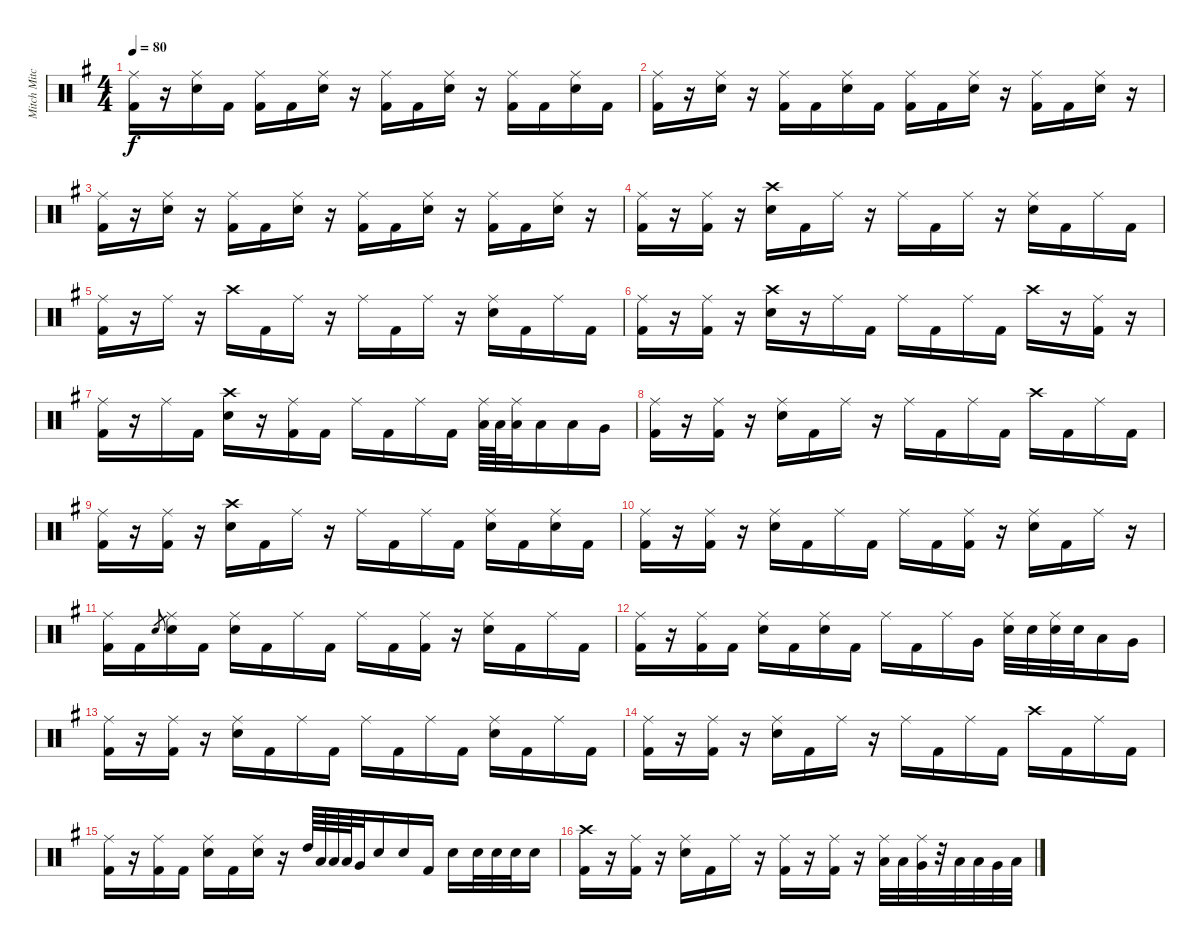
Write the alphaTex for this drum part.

\track ("Mitch Mitchell" "Mitch Mitc") {instrument percussion}
\staff {score}
\articulation defaults
\ts (4 4)
\tempo 80
\clef neutral
\ks eminor
("Ride (middle)" "Kick (hit) 2").16{dy f} r.16 ("Ride (middle)" "Electric Snare (hit)").16 "Kick (hit) 2".16 ("Ride (middle)" "Kick (hit) 2").16 "Kick (hit) 2".16 ("Ride (middle)" "Electric Snare (hit)").16 r.16 ("Ride (middle)" "Kick (hit) 2").16 "Kick (hit) 2".16 ("Ride (middle)" "Electric Snare (hit)").16 r.16 ("Ride (middle)" "Kick (hit) 2").16 "Kick (hit) 2".16 ("Ride (middle)" "Electric Snare (hit)").16 "Kick (hit) 2".16 |
("Ride (middle)" "Kick (hit) 2").16 r.16 ("Ride (middle)" "Electric Snare (hit)").16 r.16 ("Ride (middle)" "Kick (hit) 2").16 "Kick (hit) 2".16 ("Ride (middle)" "Electric Snare (hit)").16 "Kick (hit) 2".16 ("Ride (middle)" "Kick (hit) 2").16 "Kick (hit) 2".16 ("Ride (middle)" "Electric Snare (hit)").16 r.16 ("Ride (middle)" "Kick (hit) 2").16 "Kick (hit) 2".16 ("Ride (middle)" "Electric Snare (hit)").16 r.16 |
("Ride (middle)" "Kick (hit) 2").16 r.16 ("Ride (middle)" "Electric Snare (hit)").16 r.16 ("Ride (middle)" "Kick (hit) 2").16 "Kick (hit) 2".16 ("Ride (middle)" "Electric Snare (hit)").16 r.16 ("Ride (middle)" "Kick (hit) 2").16 "Kick (hit) 2".16 ("Ride (middle)" "Electric Snare (hit)").16 r.16 ("Ride (middle)" "Kick (hit) 2").16 "Kick (hit) 2".16 ("Ride (middle)" "Electric Snare (hit)").16 r.16 |
("Ride (middle)" "Kick (hit) 2").16 r.16 ("Ride (middle)" "Kick (hit) 2").16 r.16 ("Crash high (hit)" "Electric Snare (hit)").16 "Kick (hit) 2".16 "Ride (middle)".16 r.16 "Ride (middle)".16 "Kick (hit) 2".16 "Ride (middle)".16 r.16 ("Ride (middle)" "Electric Snare (hit)").16 "Kick (hit) 2".16 "Ride (middle)".16 "Kick (hit) 2".16 |
("Ride (middle)" "Kick (hit) 2").16 r.16 "Ride (middle)".16 r.16 "Crash high (hit)".16 "Kick (hit) 2".16 "Ride (middle)".16 r.16 "Ride (middle)".16 "Kick (hit) 2".16 "Ride (middle)".16 r.16 ("Ride (middle)" "Electric Snare (hit)").16 "Kick (hit) 2".16 "Ride (middle)".16 "Kick (hit) 2".16 |
("Ride (middle)" "Kick (hit) 2").16 r.16 ("Ride (middle)" "Kick (hit) 2").16 r.16 ("Crash high (hit)" "Electric Snare (hit)").16 r.16 "Ride (middle)".16 "Kick (hit) 2".16 "Ride (middle)".16 "Kick (hit) 2".16 "Ride (middle)".16 "Kick (hit) 2".16 "Crash high (hit)".16 r.16 ("Ride (middle)" "Kick (hit) 2").16 r.16 |
("Ride (middle)" "Kick (hit) 2").16 r.16 "Ride (middle)".16 "Kick (hit) 2".16 ("Crash high (hit)" "Electric Snare (hit)").16 r.16 ("Ride (middle)" "Kick (hit) 2").16 "Kick (hit) 2".16 "Ride (middle)".16 "Kick (hit) 2".16 "Ride (middle)".16 "Kick (hit) 2".16 ("Ride (middle)" "Low Tom (hit)").64 "Low Tom (hit)".64 ("Ride (middle)" "Low Tom (hit)").32 "Low Tom (hit)".16 "Low Floor Tom (hit)".16 "Very Low Tom (hit)".16 |
("Ride (middle)" "Kick (hit) 2").16 r.16 ("Ride (middle)" "Kick (hit) 2").16 r.16 ("Ride (middle)" "Electric Snare (hit)").16 "Kick (hit) 2".16 "Ride (middle)".16 r.16 "Ride (middle)".16 "Kick (hit) 2".16 "Ride (middle)".16 "Kick (hit) 2".16 "Crash high (hit)".16 "Kick (hit) 2".16 "Ride (middle)".16 "Kick (hit) 2".16 |
("Ride (middle)" "Kick (hit) 2").16 r.16 ("Ride (middle)" "Kick (hit) 2").16 r.16 ("Crash high (hit)" "Electric Snare (hit)").16 "Kick (hit) 2".16 "Ride (middle)".16 r.16 "Ride (middle)".16 "Kick (hit) 2".16 "Ride (middle)".16 "Kick (hit) 2".16 ("Ride (middle)" "Electric Snare (hit)").16 "Kick (hit) 2".16 ("Ride (middle)" "Electric Snare (hit)").16 "Kick (hit) 2".16 |
("Ride (middle)" "Kick (hit) 2").16 r.16 ("Ride (middle)" "Kick (hit) 2").16 r.16 ("Ride (middle)" "Electric Snare (hit)").16 "Kick (hit) 2".16 "Ride (middle)".16 "Kick (hit) 2".16 "Ride (middle)".16 "Kick (hit) 2".16 ("Ride (middle)" "Kick (hit) 2").16 r.16 ("Ride (middle)" "Electric Snare (hit)").16 "Kick (hit) 2".16 "Ride (middle)".16 r.16 |
("Ride (middle)" "Kick (hit) 2").16 "Kick (hit) 2".16 "Electric Snare (hit)".8{gr} ("Ride (middle)" "Electric Snare (hit)").16 "Kick (hit) 2".16 ("Ride (middle)" "Electric Snare (hit)").16 "Kick (hit) 2".16 "Ride (middle)".16 "Kick (hit) 2".16 "Ride (middle)".16 "Kick (hit) 2".16 ("Ride (middle)" "Kick (hit) 2").16 r.16 ("Ride (middle)" "Electric Snare (hit)").16 "Kick (hit) 2".16 "Ride (middle)".16 "Kick (hit) 2".16 |
("Ride (middle)" "Kick (hit) 2").16 r.16 ("Ride (middle)" "Kick (hit) 2").16 "Kick (hit) 2".16 ("Ride (middle)" "Electric Snare (hit)").16 "Kick (hit) 2".16 ("Ride (middle)" "Electric Snare (hit)").16 "Kick (hit) 2".16 "Ride (middle)".16 "Kick (hit) 2".16 "Ride (middle)".16 "Very Low Tom (hit)".16 ("Ride (middle)" "Electric Snare (hit)").32 "Electric Snare (hit)".32 ("Ride (middle)" "Electric Snare (hit)").32 "Electric Snare (hit)".32 "Low Tom (hit)".16 "Very Low Tom (hit)".16 |
("Ride (middle)" "Kick (hit) 2").16 r.16 ("Ride (middle)" "Kick (hit) 2").16 r.16 ("Ride (middle)" "Electric Snare (hit)").16 "Kick (hit) 2".16 "Ride (middle)".16 "Kick (hit) 2".16 "Ride (middle)".16 "Kick (hit) 2".16 "Ride (middle)".16 "Kick (hit) 2".16 ("Ride (middle)" "Electric Snare (hit)").16 "Kick (hit) 2".16 "Ride (middle)".16 "Kick (hit) 2".16 |
("Ride (middle)" "Kick (hit) 2").16 r.16 ("Ride (middle)" "Kick (hit) 2").16 r.16 ("Ride (middle)" "Electric Snare (hit)").16 "Kick (hit) 2".16 "Ride (middle)".16 r.16 "Ride (middle)".16 "Kick (hit) 2".16 "Ride (middle)".16 "Kick (hit) 2".16 "Crash high (hit)".16 "Kick (hit) 2".16 "Ride (middle)".16 "Kick (hit) 2".16 |
("Ride (middle)" "Kick (hit) 2").16 r.16 ("Ride (middle)" "Kick (hit) 2").16 "Kick (hit) 2".16 ("Ride (middle)" "Electric Snare (hit)").16 "Kick (hit) 2".16 ("Ride (middle)" "Electric Snare (hit)").16 r.16 "High Tom (hit)".64 "Low Tom (hit)".64 "Low Tom (hit)".64 "Low Floor Tom (hit)".64 "Very Low Tom (hit)".32 "Electric Snare (hit)".16 "Electric Snare (hit)".16 "Kick (hit) 2".16 "Electric Snare (hit)".16 "Electric Snare (hit)".32 "Electric Snare (hit)".32 "Electric Snare (hit)".32 "Electric Snare (hit)".16 |
("Crash high (hit)" "Kick (hit) 2").16 r.16 ("Ride (middle)" "Kick (hit) 2").16 r.16 ("Ride (middle)" "Electric Snare (hit)").16 "Kick (hit) 2".16 "Ride (middle)".16 r.16 ("Ride (middle)" "Kick (hit) 2").16 r.16 ("Ride (middle)" "Kick (hit) 2").16 r.16 ("Ride (middle)" "Low Tom (hit)").32 "Low Tom (hit)".32 ("Ride (middle)" "Very Low Tom (hit)").32 r.32 "Low Tom (hit)".32 "Low Tom (hit)".32 "Very Low Tom (hit)".32 "Low Floor Tom (hit)".32
